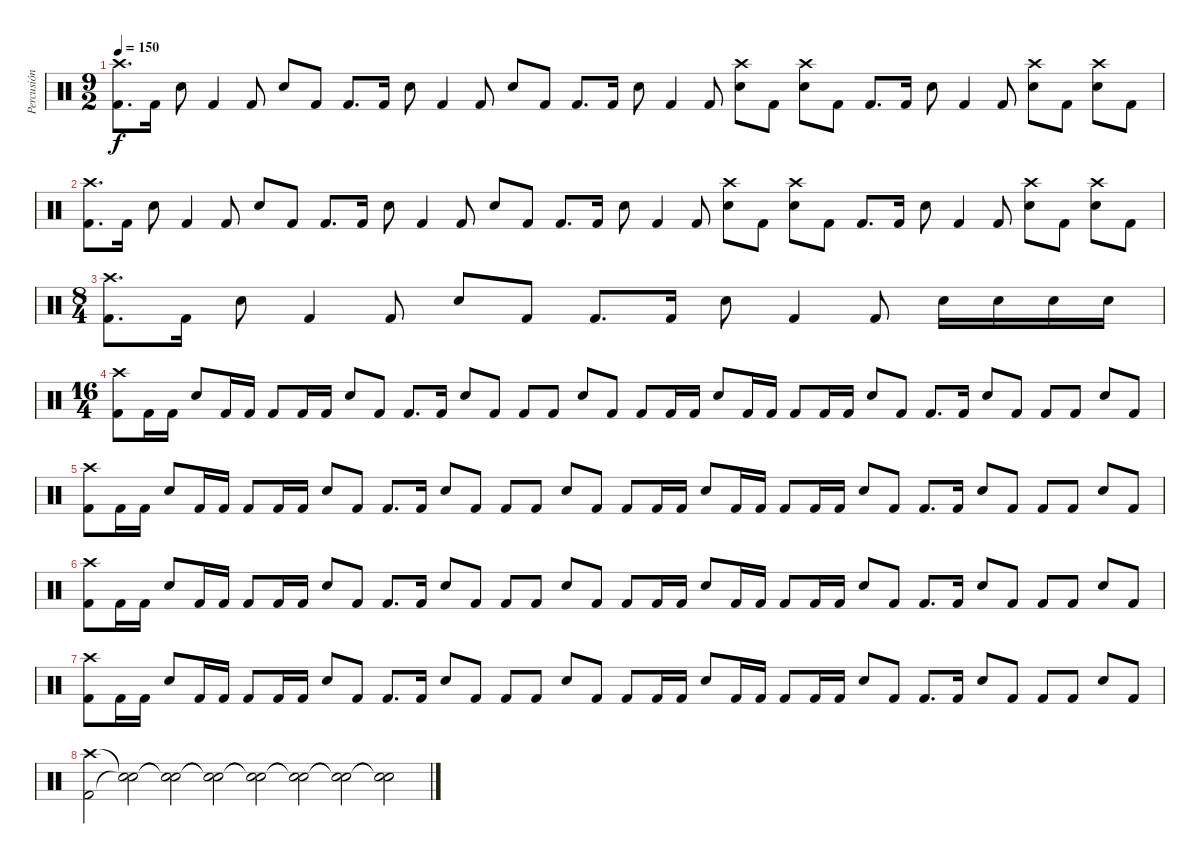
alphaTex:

\track ("Percusión" "Percusión") {instrument percussion bank 10}
\staff {score}
\articulation defaults
\ts (9 2)
\tempo 150
\clef neutral
\ks c
("Kick (hit) 2" "Crash high (hit)").8{d dy f} "Kick (hit) 2".16 "Snare (hit) 2".8 "Kick (hit) 2".4 "Kick (hit) 2".8 "Snare (hit) 2".8 "Kick (hit) 2".8 "Kick (hit) 2".8{d} "Kick (hit) 2".16 "Snare (hit) 2".8 "Kick (hit) 2".4 "Kick (hit) 2".8 "Snare (hit) 2".8 "Kick (hit) 2".8 "Kick (hit) 2".8{d} "Kick (hit) 2".16 "Snare (hit) 2".8 "Kick (hit) 2".4 "Kick (hit) 2".8 ("Snare (hit) 2" "Crash high (hit)").8 "Kick (hit) 2".8 ("Snare (hit) 2" "Crash high (hit)").8 "Kick (hit) 2".8 "Kick (hit) 2".8{d} "Kick (hit) 2".16 "Snare (hit) 2".8 "Kick (hit) 2".4 "Kick (hit) 2".8 ("Snare (hit) 2" "Crash high (hit)").8 "Kick (hit) 2".8 ("Snare (hit) 2" "Crash high (hit)").8 "Kick (hit) 2".8 |
("Kick (hit) 2" "Crash high (hit)").8{d} "Kick (hit) 2".16 "Snare (hit) 2".8 "Kick (hit) 2".4 "Kick (hit) 2".8 "Snare (hit) 2".8 "Kick (hit) 2".8 "Kick (hit) 2".8{d} "Kick (hit) 2".16 "Snare (hit) 2".8 "Kick (hit) 2".4 "Kick (hit) 2".8 "Snare (hit) 2".8 "Kick (hit) 2".8 "Kick (hit) 2".8{d} "Kick (hit) 2".16 "Snare (hit) 2".8 "Kick (hit) 2".4 "Kick (hit) 2".8 ("Snare (hit) 2" "Crash high (hit)").8 "Kick (hit) 2".8 ("Snare (hit) 2" "Crash high (hit)").8 "Kick (hit) 2".8 "Kick (hit) 2".8{d} "Kick (hit) 2".16 "Snare (hit) 2".8 "Kick (hit) 2".4 "Kick (hit) 2".8 ("Snare (hit) 2" "Crash high (hit)").8 "Kick (hit) 2".8 ("Snare (hit) 2" "Crash high (hit)").8 "Kick (hit) 2".8 |
\ts (8 4)
("Kick (hit) 2" "Crash high (hit)").8{d} "Kick (hit) 2".16 "Snare (hit) 2".8 "Kick (hit) 2".4 "Kick (hit) 2".8 "Snare (hit) 2".8 "Kick (hit) 2".8 "Kick (hit) 2".8{d} "Kick (hit) 2".16 "Snare (hit) 2".8 "Kick (hit) 2".4 "Kick (hit) 2".8 "Snare (hit) 2".16 "Snare (hit) 2".16 "Snare (hit) 2".16 "Snare (hit) 2".16 |
\ts (16 4)
("Kick (hit) 2" "Crash high (hit)").8 "Kick (hit) 2".16 "Kick (hit) 2".16 "Snare (hit) 2".8 "Kick (hit) 2".16 "Kick (hit) 2".16 "Kick (hit) 2".8 "Kick (hit) 2".16 "Kick (hit) 2".16 "Snare (hit) 2".8 "Kick (hit) 2".8 "Kick (hit) 2".8{d} "Kick (hit) 2".16 "Snare (hit) 2".8 "Kick (hit) 2".8 "Kick (hit) 2".8 "Kick (hit) 2".8 "Snare (hit) 2".8 "Kick (hit) 2".8 "Kick (hit) 2".8 "Kick (hit) 2".16 "Kick (hit) 2".16 "Snare (hit) 2".8 "Kick (hit) 2".16 "Kick (hit) 2".16 "Kick (hit) 2".8 "Kick (hit) 2".16 "Kick (hit) 2".16 "Snare (hit) 2".8 "Kick (hit) 2".8 "Kick (hit) 2".8{d} "Kick (hit) 2".16 "Snare (hit) 2".8 "Kick (hit) 2".8 "Kick (hit) 2".8 "Kick (hit) 2".8 "Snare (hit) 2".8 "Kick (hit) 2".8 |
("Kick (hit) 2" "Crash high (hit)").8 "Kick (hit) 2".16 "Kick (hit) 2".16 "Snare (hit) 2".8 "Kick (hit) 2".16 "Kick (hit) 2".16 "Kick (hit) 2".8 "Kick (hit) 2".16 "Kick (hit) 2".16 "Snare (hit) 2".8 "Kick (hit) 2".8 "Kick (hit) 2".8{d} "Kick (hit) 2".16 "Snare (hit) 2".8 "Kick (hit) 2".8 "Kick (hit) 2".8 "Kick (hit) 2".8 "Snare (hit) 2".8 "Kick (hit) 2".8 "Kick (hit) 2".8 "Kick (hit) 2".16 "Kick (hit) 2".16 "Snare (hit) 2".8 "Kick (hit) 2".16 "Kick (hit) 2".16 "Kick (hit) 2".8 "Kick (hit) 2".16 "Kick (hit) 2".16 "Snare (hit) 2".8 "Kick (hit) 2".8 "Kick (hit) 2".8{d} "Kick (hit) 2".16 "Snare (hit) 2".8 "Kick (hit) 2".8 "Kick (hit) 2".8 "Kick (hit) 2".8 "Snare (hit) 2".8 "Kick (hit) 2".8 |
("Kick (hit) 2" "Crash high (hit)").8 "Kick (hit) 2".16 "Kick (hit) 2".16 "Snare (hit) 2".8 "Kick (hit) 2".16 "Kick (hit) 2".16 "Kick (hit) 2".8 "Kick (hit) 2".16 "Kick (hit) 2".16 "Snare (hit) 2".8 "Kick (hit) 2".8 "Kick (hit) 2".8{d} "Kick (hit) 2".16 "Snare (hit) 2".8 "Kick (hit) 2".8 "Kick (hit) 2".8 "Kick (hit) 2".8 "Snare (hit) 2".8 "Kick (hit) 2".8 "Kick (hit) 2".8 "Kick (hit) 2".16 "Kick (hit) 2".16 "Snare (hit) 2".8 "Kick (hit) 2".16 "Kick (hit) 2".16 "Kick (hit) 2".8 "Kick (hit) 2".16 "Kick (hit) 2".16 "Snare (hit) 2".8 "Kick (hit) 2".8 "Kick (hit) 2".8{d} "Kick (hit) 2".16 "Snare (hit) 2".8 "Kick (hit) 2".8 "Kick (hit) 2".8 "Kick (hit) 2".8 "Snare (hit) 2".8 "Kick (hit) 2".8 |
("Kick (hit) 2" "Crash high (hit)").8 "Kick (hit) 2".16 "Kick (hit) 2".16 "Snare (hit) 2".8 "Kick (hit) 2".16 "Kick (hit) 2".16 "Kick (hit) 2".8 "Kick (hit) 2".16 "Kick (hit) 2".16 "Snare (hit) 2".8 "Kick (hit) 2".8 "Kick (hit) 2".8{d} "Kick (hit) 2".16 "Snare (hit) 2".8 "Kick (hit) 2".8 "Kick (hit) 2".8 "Kick (hit) 2".8 "Snare (hit) 2".8 "Kick (hit) 2".8 "Kick (hit) 2".8 "Kick (hit) 2".16 "Kick (hit) 2".16 "Snare (hit) 2".8 "Kick (hit) 2".16 "Kick (hit) 2".16 "Kick (hit) 2".8 "Kick (hit) 2".16 "Kick (hit) 2".16 "Snare (hit) 2".8 "Kick (hit) 2".8 "Kick (hit) 2".8{d} "Kick (hit) 2".16 "Snare (hit) 2".8 "Kick (hit) 2".8 "Kick (hit) 2".8 "Kick (hit) 2".8 "Snare (hit) 2".8 "Kick (hit) 2".8 |
("Kick (hit) 2" "Crash high (hit)").2 ("Snare (hit)"{t} "Snare (hit)"{t}).2 ("Snare (hit)"{t} "Snare (hit)"{t}).2 ("Snare (hit)"{t} "Snare (hit)"{t}).2 ("Snare (hit)"{t} "Snare (hit)"{t}).2 ("Snare (hit)"{t} "Snare (hit)"{t}).2 ("Snare (hit)"{t} "Snare (hit)"{t}).2 ("Snare (hit)"{t} "Snare (hit)"{t}).2
